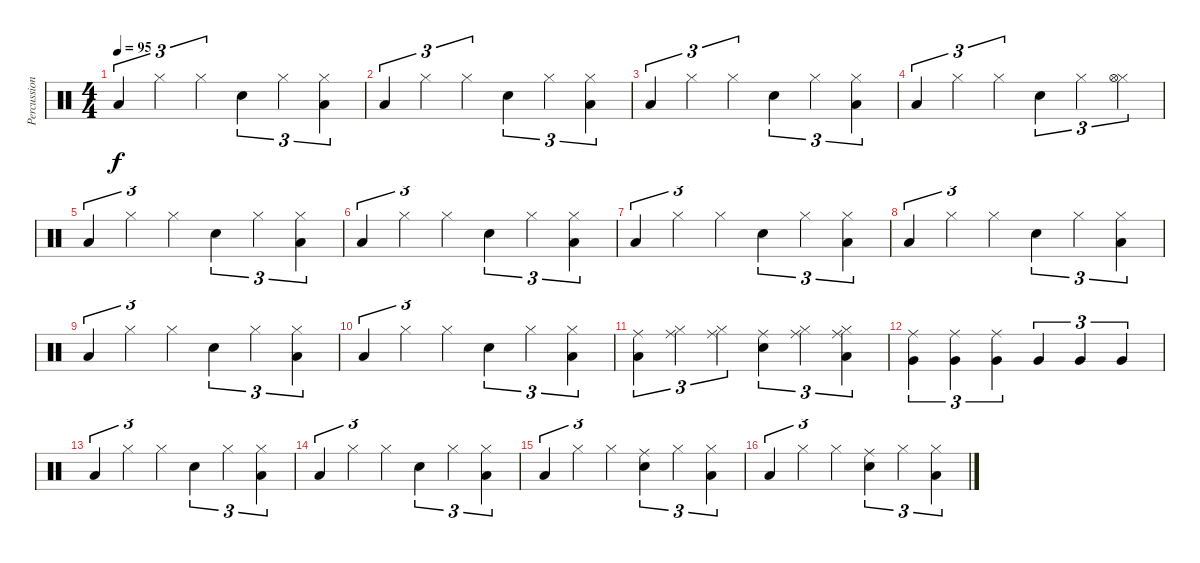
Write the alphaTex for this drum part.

\track ("Percussion" "Percussion") {instrument percussion}
\staff {score}
\articulation defaults
\ts (4 4)
\tempo 95
\clef neutral
\ks c "Low Floor Tom (hit)".4{tu (3 2) dy f} "Hi-Hat (closed)".4{tu (3 2)} "Hi-Hat (closed)".4{tu (3 2)} "Electric Snare (hit)".4{tu (3 2)} "Hi-Hat (closed)".4{tu (3 2)}
("Hi-Hat (closed)" "Low Floor Tom (hit)").4{tu (3 2)} |
"Low Floor Tom (hit)".4{tu (3 2)} "Hi-Hat (closed)".4{tu (3 2)} "Hi-Hat (closed)".4{tu (3 2)} "Snare (hit) 2".4{tu (3 2)} "Hi-Hat (closed)".4{tu (3 2)} ("Hi-Hat (closed)" "Low Floor Tom (hit)").4{tu (3 2)} |
"Low Floor Tom (hit)".4{tu (3 2)} "Hi-Hat (closed)".4{tu (3 2)} "Hi-Hat (closed)".4{tu (3 2)} "Snare (hit) 2".4{tu (3 2)} "Hi-Hat (closed)".4{tu (3 2)} ("Hi-Hat (closed)" "Low Floor Tom (hit)").4{tu (3 2)} |
"Low Floor Tom (hit)".4{tu (3 2)} "Hi-Hat (closed)".4{tu (3 2)} "Hi-Hat (closed)".4{tu (3 2)} "Snare (hit) 2".4{tu (3 2)} "Hi-Hat (closed)".4{tu (3 2)} ("Hi-Hat (closed)" "Hi-Hat (open)").4{tu (3 2)} |
"Low Floor Tom (hit)".4{tu (3 2)} "Hi-Hat (closed)".4{tu (3 2)} "Hi-Hat (closed)".4{tu (3 2)} "Electric Snare (hit)".4{tu (3 2)} "Hi-Hat (closed)".4{tu (3 2)} ("Hi-Hat (closed)" "Low Floor Tom (hit)").4{tu (3 2)} |
"Low Floor Tom (hit)".4{tu (3 2)} "Hi-Hat (closed)".4{tu (3 2)} "Hi-Hat (closed)".4{tu (3 2)} "Electric Snare (hit)".4{tu (3 2)} "Hi-Hat (closed)".4{tu (3 2)} ("Hi-Hat (closed)" "Low Floor Tom (hit)").4{tu (3 2)} |
"Low Floor Tom (hit)".4{tu (3 2)} "Hi-Hat (closed)".4{tu (3 2)} "Hi-Hat (closed)".4{tu (3 2)} "Electric Snare (hit)".4{tu (3 2)} "Hi-Hat (closed)".4{tu (3 2)} ("Hi-Hat (closed)" "Low Floor Tom (hit)").4{tu (3 2)} |
"Low Floor Tom (hit)".4{tu (3 2)} "Hi-Hat (closed)".4{tu (3 2)} "Hi-Hat (closed)".4{tu (3 2)} "Electric Snare (hit)".4{tu (3 2)} "Hi-Hat (closed)".4{tu (3 2)} ("Hi-Hat (closed)" "Low Floor Tom (hit)").4{tu (3 2)} |
"Low Floor Tom (hit)".4{tu (3 2)} "Hi-Hat (closed)".4{tu (3 2)} "Hi-Hat (closed)".4{tu (3 2)} "Electric Snare (hit)".4{tu (3 2)} "Hi-Hat (closed)".4{tu (3 2)} ("Hi-Hat (closed)" "Low Floor Tom (hit)").4{tu (3 2)} |
"Low Floor Tom (hit)".4{tu (3 2)} "Hi-Hat (closed)".4{tu (3 2)} "Hi-Hat (closed)".4{tu (3 2)} "Electric Snare (hit)".4{tu (3 2)} "Hi-Hat (closed)".4{tu (3 2)} ("Hi-Hat (closed)" "Low Floor Tom (hit)").4{tu (3 2)} |
("Low Floor Tom (hit)" "Ride (middle)").4{tu (3 2) volume 16} ("Hi-Hat (closed)" "Ride (middle)").4{tu (3 2)} ("Hi-Hat (closed)" "Ride (middle)").4{tu (3 2)} ("Electric Snare (hit)" "Ride (middle)").4{tu (3 2)} ("Hi-Hat (closed)" "Ride (middle)").4{tu (3 2)} ("Hi-Hat (closed)" "Low Floor Tom (hit)" "Ride (middle)").4{tu (3 2)} |
("Ride (middle)" "Very Low Tom (hit)").4{tu (3 2)} ("Ride (middle)" "Very Low Tom (hit)").4{tu (3 2)} ("Ride (middle)" "Very Low Tom (hit)").4{tu (3 2)} "Very Low Tom (hit)".4{tu (3 2)} "Very Low Tom (hit)".4{tu (3 2)} "Very Low Tom (hit)".4{tu (3 2)} |
"Low Floor Tom (hit)".4{tu (3 2) volume 6} "Hi-Hat (closed)".4{tu (3 2)} "Hi-Hat (closed)".4{tu (3 2)} "Electric Snare (hit)".4{tu (3 2)} "Hi-Hat (closed)".4{tu (3 2)} ("Hi-Hat (closed)" "Low Floor Tom (hit)").4{tu (3 2)} |
"Low Floor Tom (hit)".4{tu (3 2)} "Hi-Hat (closed)".4{tu (3 2)} "Hi-Hat (closed)".4{tu (3 2)} "Electric Snare (hit)".4{tu (3 2)} "Hi-Hat (closed)".4{tu (3 2)} ("Hi-Hat (closed)" "Low Floor Tom (hit)").4{tu (3 2)} |
"Low Floor Tom (hit)".4{tu (3 2)} "Hi-Hat (closed)".4{tu (3 2)} "Hi-Hat (closed)".4{tu (3 2)} ("Electric Snare (hit)" "Ride (middle)").4{tu (3 2)} "Hi-Hat (closed)".4{tu (3 2)} ("Hi-Hat (closed)" "Low Floor Tom (hit)").4{tu (3 2)} |
"Low Floor Tom (hit)".4{tu (3 2)} "Hi-Hat (closed)".4{tu (3 2)} "Hi-Hat (closed)".4{tu (3 2)} ("Electric Snare (hit)" "Ride (middle)").4{tu (3 2)} "Hi-Hat (closed)".4{tu (3 2)} ("Hi-Hat (closed)" "Low Floor Tom (hit)").4{tu (3 2)}
